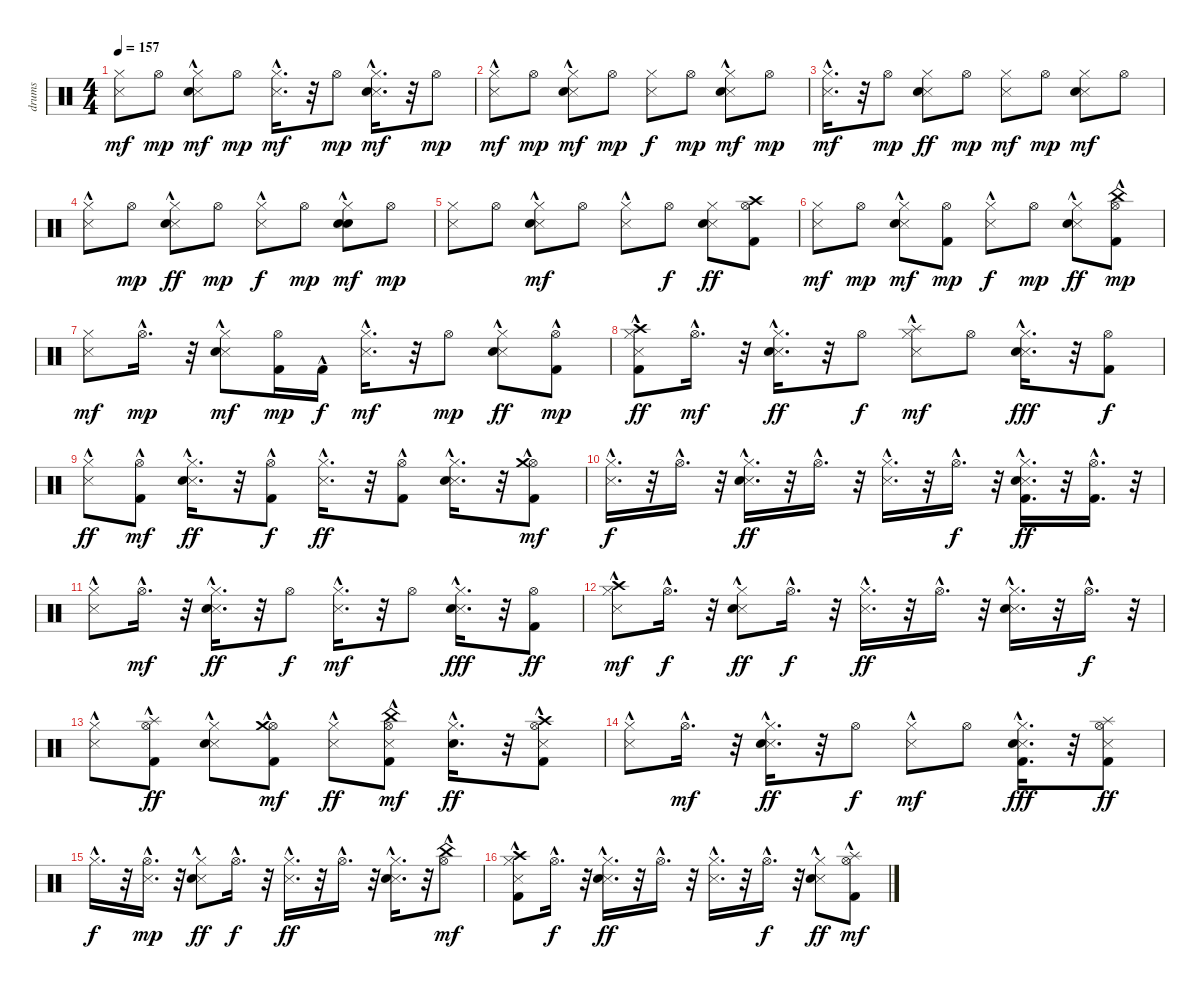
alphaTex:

\track ("drums   " "drums   ") {instrument percussion}
\staff {score}
\articulation defaults
\ts (4 4)
\tempo 157
\clef neutral
\ks c
("Snare (side stick) 3" "Hi-Hat (closed)").8{dy mf} "Hi-Hat (open)".8{dy mp} ("Snare (side stick) 3" "Hand Clap (hit)"{hac} "Hi-Hat (closed)"{hac}).8{dy mf} "Hi-Hat (open)".8{dy mp} ("Snare (side stick) 3"{hac} "Hi-Hat (closed)"{hac}).16{d dy mf} r.32 "Hi-Hat (open)".8{dy mp} ("Snare (side stick) 3"{hac} "Hand Clap (hit)"{hac} "Hi-Hat (closed)"{hac}).16{d dy mf} r.32 "Hi-Hat (open)".8{dy mp} |
("Snare (side stick) 3" "Hi-Hat (closed)"{hac}).8{dy mf} "Hi-Hat (open)".8{dy mp} ("Snare (side stick) 3"{hac} "Hand Clap (hit)" "Hi-Hat (closed)").8{dy mf} "Hi-Hat (open)".8{dy mp} ("Snare (side stick) 3" "Hi-Hat (closed)").8{dy f} "Hi-Hat (open)".8{dy mp} ("Snare (side stick) 3"{hac} "Hand Clap (hit)" "Hi-Hat (closed)"{hac}).8{dy mf} "Hi-Hat (open)".8{dy mp} |
("Snare (side stick) 3"{hac} "Hi-Hat (closed)"{hac}).16{d dy mf} r.32 "Hi-Hat (open)".8{dy mp} ("Snare (side stick) 3" "Hand Clap (hit)" "Hi-Hat (closed)").8{dy ff} "Hi-Hat (open)".8{dy mp} ("Snare (side stick) 3" "Hi-Hat (closed)").8{dy mf} "Hi-Hat (open)".8{dy mp} ("Snare (side stick) 3" "Hand Clap (hit)" "Hi-Hat (closed)").8{dy mf} "Hi-Hat (open)".8 |
("Snare (side stick) 3" "Hi-Hat (closed)"{hac}).8 "Hi-Hat (open)".8{dy mp} ("Snare (side stick) 3" "Hand Clap (hit)"{hac} "Hi-Hat (closed)").8{dy ff} "Hi-Hat (open)".8{dy mp} ("Snare (side stick) 3" "Hi-Hat (closed)"{hac}).8{dy f} "Hi-Hat (open)".8{dy mp} ("Hand Clap (hit)"{hac} "Electric Snare (hit)"{hac} "Hi-Hat (closed)").8{dy mf} "Hi-Hat (open)".8{dy mp} |
("Snare (side stick) 3" "Hi-Hat (closed)").8 "Hi-Hat (open)".8 ("Snare (side stick) 3"{hac} "Hand Clap (hit)" "Hi-Hat (closed)").8{dy mf} "Hi-Hat (open)".8 ("Snare (side stick) 3"{hac} "Hi-Hat (closed)").8 "Hi-Hat (open)".8{dy f} ("Snare (side stick) 3" "Hand Clap (hit)" "Hi-Hat (closed)").8{dy ff} ("Kick (hit) 2" "Hi-Hat (open)" "Crash high (hit)").8 |
("Snare (side stick) 3" "Hi-Hat (closed)").8{dy mf} "Hi-Hat (open)".8{dy mp} ("Snare (side stick) 3"{hac} "Hand Clap (hit)"{hac} "Hi-Hat (closed)").8{dy mf} ("Kick (hit) 2" "Hi-Hat (open)").8{dy mp} ("Snare (side stick) 3"{hac} "Hi-Hat (closed)").8{dy f} "Hi-Hat (open)".8{dy mp} ("Snare (side stick) 3" "Hand Clap (hit)"{hac} "Hi-Hat (closed)").8{dy ff} ("Kick (hit) 2"{hac} "Hi-Hat (open)" "China (hit)"{hac}).8{dy mp} |
("Snare (side stick) 3" "Hi-Hat (closed)").8{dy mf} "Hi-Hat (open)"{hac}.16{d dy mp} r.32 ("Snare (side stick) 3"{hac} "Hand Clap (hit)" "Hi-Hat (closed)").8{dy mf} ("Kick (hit) 2" "Hi-Hat (open)").16{dy mp} "Kick (hit) 2"{hac}.16{dy f} ("Snare (side stick) 3"{hac} "Hi-Hat (closed)"{hac}).16{d dy mf} r.32 "Hi-Hat (open)".8{dy mp} ("Snare (side stick) 3"{hac} "Hand Clap (hit)"{hac} "Hi-Hat (closed)").8{dy ff} ("Kick (hit) 2"{hac} "Hi-Hat (open)").8{dy mp} |
("Kick (hit) 2"{hac} "Snare (side stick) 3" "Hi-Hat (closed)" "Crash high (hit)"{hac}).8{dy ff} "Hi-Hat (open)"{hac}.16{d dy mf} r.32 ("Snare (side stick) 3" "Hand Clap (hit)"{hac} "Hi-Hat (closed)"{hac}).16{d dy ff} r.32 "Hi-Hat (open)".8{dy f} ("Snare (side stick) 3"{hac} "Hi-Hat (closed)"{hac} "Splash (hit)"{hac}).8{dy mf} "Hi-Hat (open)".8 ("Snare (side stick) 3"{hac} "Hand Clap (hit)"{hac} "Hi-Hat (closed)"{hac}).16{d dy fff} r.32 ("Kick (hit) 2" "Hi-Hat (open)").8{dy f} |
("Snare (side stick) 3" "Hi-Hat (closed)"{hac}).8{dy ff} ("Kick (hit) 2" "Hi-Hat (open)"{hac}).8{dy mf} ("Snare (side stick) 3"{hac} "Hand Clap (hit)" "Hi-Hat (closed)"{hac}).16{d dy ff} r.32 ("Kick (hit) 2" "Hi-Hat (open)"{hac}).8{dy f} ("Snare (side stick) 3" "Hi-Hat (closed)"{hac}).16{d dy ff} r.32 ("Kick (hit) 2" "Hi-Hat (open)"{hac}).8 ("Snare (side stick) 3" "Hand Clap (hit)"{hac} "Hi-Hat (closed)"{hac}).16{d} r.32 ("Kick (hit) 2" "Hi-Hat (open)"{hac} "Crash medium (hit)"{hac}).8{dy mf} |
("Snare (side stick) 3"{hac} "Hi-Hat (closed)"{hac}).16{d dy f} r.32 "Hi-Hat (open)"{hac}.16{d} r.32 ("Snare (side stick) 3" "Hand Clap (hit)"{hac} "Hi-Hat (closed)"{hac}).16{d dy ff} r.32 "Hi-Hat (open)"{hac}.16{d} r.32 ("Snare (side stick) 3"{hac} "Hi-Hat (closed)"{hac}).16{d} r.32 "Hi-Hat (open)"{hac}.16{d dy f} r.32 ("Kick (hit) 2" "Snare (side stick) 3"{hac} "Hand Clap (hit)"{hac} "Hi-Hat (closed)"{hac}).16{d dy ff} r.32 ("Kick (hit) 2"{hac} "Hi-Hat (open)"{hac}).16{d} r.32 |
("Snare (side stick) 3" "Hi-Hat (closed)"{hac}).8 "Hi-Hat (open)"{hac}.16{d dy mf} r.32 ("Snare (side stick) 3"{hac} "Hand Clap (hit)" "Hi-Hat (closed)"{hac}).16{d dy ff} r.32 "Hi-Hat (open)".8{dy f} ("Snare (side stick) 3"{hac} "Hi-Hat (closed)"{hac}).16{d dy mf} r.32 "Hi-Hat (open)".8 ("Snare (side stick) 3" "Hand Clap (hit)"{hac} "Hi-Hat (closed)"{hac}).16{d dy fff} r.32 ("Kick (hit) 2" "Hi-Hat (open)").8{dy ff} |
("Snare (side stick) 3" "Hi-Hat (closed)"{hac} "Crash high (hit)"{hac}).8{dy mf} "Hi-Hat (open)"{hac}.16{d dy f} r.32 ("Snare (side stick) 3"{hac} "Hand Clap (hit)" "Hi-Hat (closed)").8{dy ff} "Hi-Hat (open)"{hac}.16{d dy f} r.32 ("Snare (side stick) 3"{hac} "Hi-Hat (closed)"{hac}).16{d dy ff} r.32 "Hi-Hat (open)"{hac}.16{d} r.32 ("Snare (side stick) 3"{hac} "Hand Clap (hit)" "Hi-Hat (closed)"{hac}).16{d} r.32 "Hi-Hat (open)"{hac}.16{d dy f} r.32 |
("Snare (side stick) 3" "Hi-Hat (closed)"{hac}).8 ("Kick (hit) 2" "Hi-Hat (open)"{hac} "Splash (hit)").8{dy ff} ("Snare (side stick) 3" "Hand Clap (hit)"{hac} "Hi-Hat (closed)"{hac}).8 ("Kick (hit) 2"{hac} "Hi-Hat (open)"{hac} "Crash medium (hit)"{hac}).8{dy mf} ("Snare (side stick) 3" "Hi-Hat (closed)"{hac}).8{dy ff} ("Kick (hit) 2"{hac} "Snare (side stick) 3" "Hi-Hat (open)"{hac} "China (hit)"{hac}).8{dy mf} ("Hand Clap (hit)" "Hi-Hat (closed)"{hac}).16{d dy ff} r.32 ("Kick (hit) 2" "Snare (side stick) 3"{hac} "Hi-Hat (open)"{hac} "Crash high (hit)").8 |
("Snare (side stick) 3" "Hi-Hat (closed)"{hac}).8 "Hi-Hat (open)"{hac}.16{d dy mf} r.32 ("Snare (side stick) 3"{hac} "Hand Clap (hit)" "Hi-Hat (closed)"{hac}).16{d dy ff} r.32 "Hi-Hat (open)".8{dy f} ("Snare (side stick) 3" "Hi-Hat (closed)"{hac}).8{dy mf} "Hi-Hat (open)".8 ("Kick (hit) 2"{hac} "Snare (side stick) 3" "Hand Clap (hit)"{hac} "Hi-Hat (closed)"{hac}).16{d dy fff} r.32 ("Kick (hit) 2" "Snare (side stick) 3" "Hi-Hat (open)" "Splash (hit)").8{dy ff} |
"Hi-Hat (closed)"{hac}.16{d dy f} r.32 ("Snare (side stick) 3" "Hi-Hat (open)"{hac}).16{d dy mp} r.32 ("Snare (side stick) 3" "Hand Clap (hit)"{hac} "Hi-Hat (closed)"{hac}).8{dy ff} "Hi-Hat (open)"{hac}.16{d dy f} r.32 ("Snare (side stick) 3" "Hi-Hat (closed)"{hac}).16{d dy ff} r.32 "Hi-Hat (open)"{hac}.16{d} r.32 ("Snare (side stick) 3"{hac} "Hand Clap (hit)"{hac} "Hi-Hat (closed)"{hac}).16{d} r.32 ("Hi-Hat (open)"{hac} "China (hit)"{hac}).8{dy mf} |
("Kick (hit) 2" "Snare (side stick) 3"{hac} "Hi-Hat (closed)"{hac} "Crash high (hit)"{hac}).8 "Hi-Hat (open)"{hac}.16{d dy f} r.32 ("Snare (side stick) 3"{hac} "Hand Clap (hit)" "Hi-Hat (closed)"{hac}).16{d dy ff} r.32 "Hi-Hat (open)"{hac}.16{d} r.32 ("Snare (side stick) 3"{hac} "Hi-Hat (closed)"{hac}).16{d} r.32 "Hi-Hat (open)"{hac}.16{d dy f} r.32 ("Snare (side stick) 3" "Hand Clap (hit)"{hac} "Hi-Hat (closed)"{hac}).8{dy ff} ("Kick (hit) 2" "Hi-Hat (open)" "Splash (hit)"{hac}).8{dy mf}
